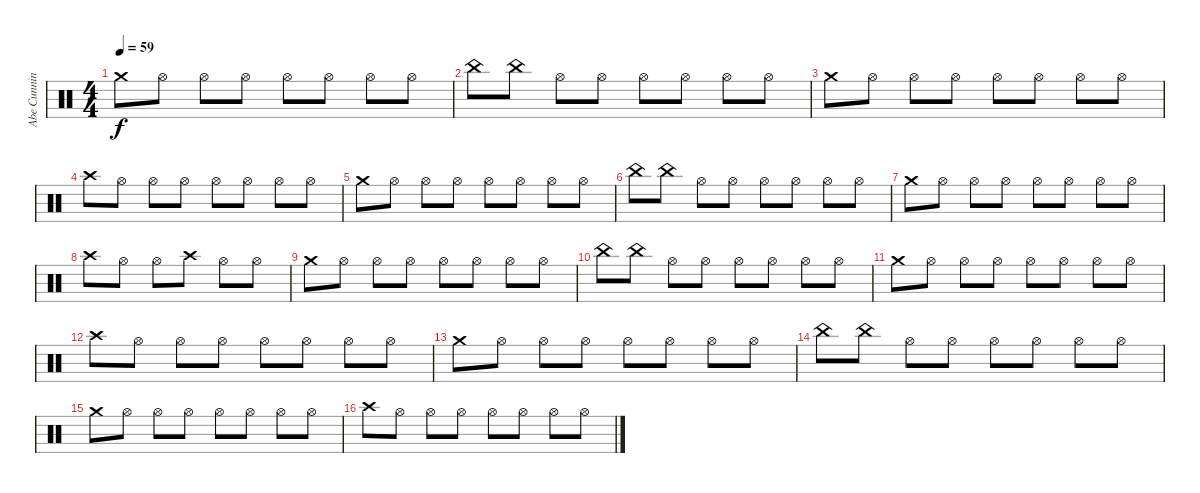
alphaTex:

\track ("Abe Cunningham Cymbals" "Abe Cunnin") {instrument percussion}
\staff {score}
\articulation defaults
\ts (4 4)
\tempo 59
\clef neutral
\ks c "Crash medium (hit)".8{dy f} "Hi-Hat (open)".8 "Hi-Hat (open)".8 "Hi-Hat (open)".8 "Hi-Hat (open)".8 "Hi-Hat (open)".8 "Hi-Hat (open)".8 "Hi-Hat (open)".8
|
"China (hit)".8 "China (hit)".8 "Hi-Hat (open)".8 "Hi-Hat (open)".8 "Hi-Hat (open)".8 "Hi-Hat (open)".8 "Hi-Hat (open)".8 "Hi-Hat (open)".8 |
"Crash medium (hit)".8 "Hi-Hat (open)".8 "Hi-Hat (open)".8 "Hi-Hat (open)".8 "Hi-Hat (open)".8 "Hi-Hat (open)".8 "Hi-Hat (open)".8 "Hi-Hat (open)".8 |
"Crash high (hit)".8 "Hi-Hat (open)".8 "Hi-Hat (open)".8 "Hi-Hat (open)".8 "Hi-Hat (open)".8 "Hi-Hat (open)".8 "Hi-Hat (open)".8 "Hi-Hat (open)".8 |
"Crash medium (hit)".8 "Hi-Hat (open)".8 "Hi-Hat (open)".8 "Hi-Hat (open)".8 "Hi-Hat (open)".8 "Hi-Hat (open)".8 "Hi-Hat (open)".8 "Hi-Hat (open)".8 |
"China (hit)".8 "China (hit)".8 "Hi-Hat (open)".8 "Hi-Hat (open)".8 "Hi-Hat (open)".8 "Hi-Hat (open)".8 "Hi-Hat (open)".8 "Hi-Hat (open)".8 |
"Crash medium (hit)".8 "Hi-Hat (open)".8 "Hi-Hat (open)".8 "Hi-Hat (open)".8 "Hi-Hat (open)".8 "Hi-Hat (open)".8 "Hi-Hat (open)".8 "Hi-Hat (open)".8 |
"Crash high (hit)".8 "Hi-Hat (open)".8 "Hi-Hat (open)".8 "Crash high (hit)".8 "Hi-Hat (open)".8 "Hi-Hat (open)".8 |
"Crash medium (hit)".8 "Hi-Hat (open)".8 "Hi-Hat (open)".8 "Hi-Hat (open)".8 "Hi-Hat (open)".8 "Hi-Hat (open)".8 "Hi-Hat (open)".8 "Hi-Hat (open)".8 |
"China (hit)".8 "China (hit)".8 "Hi-Hat (open)".8 "Hi-Hat (open)".8 "Hi-Hat (open)".8 "Hi-Hat (open)".8 "Hi-Hat (open)".8 "Hi-Hat (open)".8 |
"Crash medium (hit)".8 "Hi-Hat (open)".8 "Hi-Hat (open)".8 "Hi-Hat (open)".8 "Hi-Hat (open)".8 "Hi-Hat (open)".8 "Hi-Hat (open)".8 "Hi-Hat (open)".8 |
"Crash high (hit)".8 "Hi-Hat (open)".8 "Hi-Hat (open)".8 "Hi-Hat (open)".8 "Hi-Hat (open)".8 "Hi-Hat (open)".8 "Hi-Hat (open)".8 "Hi-Hat (open)".8 |
"Crash medium (hit)".8 "Hi-Hat (open)".8 "Hi-Hat (open)".8 "Hi-Hat (open)".8 "Hi-Hat (open)".8 "Hi-Hat (open)".8 "Hi-Hat (open)".8 "Hi-Hat (open)".8 |
"China (hit)".8 "China (hit)".8 "Hi-Hat (open)".8 "Hi-Hat (open)".8 "Hi-Hat (open)".8 "Hi-Hat (open)".8 "Hi-Hat (open)".8 "Hi-Hat (open)".8 |
"Crash medium (hit)".8 "Hi-Hat (open)".8 "Hi-Hat (open)".8 "Hi-Hat (open)".8 "Hi-Hat (open)".8 "Hi-Hat (open)".8 "Hi-Hat (open)".8 "Hi-Hat (open)".8 |
"Crash high (hit)".8 "Hi-Hat (open)".8 "Hi-Hat (open)".8 "Hi-Hat (open)".8 "Hi-Hat (open)".8 "Hi-Hat (open)".8 "Hi-Hat (open)".8 "Hi-Hat (open)".8
